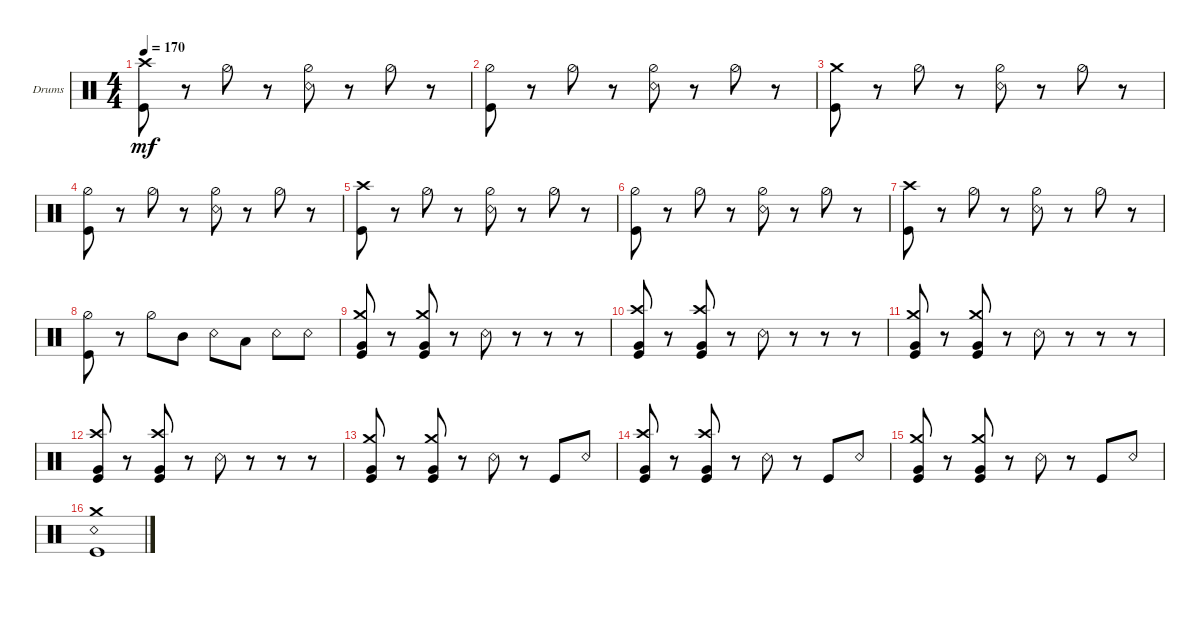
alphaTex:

\defaultSystemsLayout 4
\bracketExtendMode groupsimilarinstruments
\firstSystemTrackNameOrientation horizontal
\otherSystemsTrackNameOrientation horizontal
\track ("Drumkit" "Drums") {instrument percussion}
\staff {score}
\articulation defaults
\ts (4 4)
\tempo 170
\clef neutral
\scale
0.333333
\ks c
("Kick (hit)" "Crash high (hit)").8{dy mf} r.8 "Hi-Hat (half)".8 r.8 ("Snare (rim shot)" "Hi-Hat (half)").8 r.8 "Hi-Hat (half)".8 r.8 |
\scale
0.333333 ("Hi-Hat (half)" "Kick (hit)").8 r.8 "Hi-Hat (half)".8 r.8 ("Snare (rim shot)" "Hi-Hat (half)").8 r.8 "Hi-Hat (half)".8 r.8 |
\scale
0.333333 ("Kick (hit)" "Crash medium (hit)").8 r.8 "Hi-Hat (half)".8 r.8 ("Snare (rim shot)" "Hi-Hat (half)").8 r.8 "Hi-Hat (half)".8 r.8 |
\scale
0.333333 ("Kick (hit)" "Hi-Hat (half)").8 r.8 "Hi-Hat (half)".8 r.8 ("Snare (rim shot)" "Hi-Hat (half)").8 r.8 "Hi-Hat (half)".8 r.8 |
\scale
0.333333 ("Kick (hit)" "Crash high (hit)").8 r.8 "Hi-Hat (half)".8 r.8 ("Snare (rim shot)" "Hi-Hat (half)").8 r.8 "Hi-Hat (half)".8 r.8 |
\scale
0.333333 ("Kick (hit)" "Hi-Hat (half)").8 r.8 "Hi-Hat (half)".8 r.8 ("Snare (rim shot)" "Hi-Hat (half)").8 r.8 "Hi-Hat (half)".8 r.8 |
\scale
0.333333 ("Kick (hit)" "Crash high (hit)").8 r.8 "Hi-Hat (half)".8 r.8 ("Snare (rim shot)" "Hi-Hat (half)").8 r.8 "Hi-Hat (half)".8 r.8 |
\scale
0.333333 ("Kick (hit)" "Hi-Hat (half)").8 r.8 "Hi-Hat (half)".8 "Mid Tom (hit)".8 "Snare (rim shot)".8 "Low Tom (hit)".8 "Snare (rim shot)".8 "Snare (rim shot)".8 |
\scale
0.333333 ("Kick (hit)" "Very Low Tom (hit)" "Crash medium (hit)").8 r.8 ("Kick (hit)" "Very Low Tom (hit)" "Crash medium (hit)").8 r.8 "Snare (rim shot)".8 r.8 r.8 r.8 |
\scale
0.333333 ("Kick (hit)" "Very Low Tom (hit)" "Crash high (hit)").8 r.8 ("Kick (hit)" "Very Low Tom (hit)" "Crash high (hit)").8 r.8 "Snare (rim shot)".8 r.8 r.8 r.8 |
\scale
0.333333 ("Kick (hit)" "Very Low Tom (hit)" "Crash medium (hit)").8 r.8 ("Kick (hit)" "Very Low Tom (hit)" "Crash medium (hit)").8 r.8 "Snare (rim shot)".8 r.8 r.8 r.8 |
("Kick (hit)" "Very Low Tom (hit)" "Crash high (hit)").8 r.8 ("Kick (hit)" "Very Low Tom (hit)" "Crash high (hit)").8 r.8 "Snare (rim shot)".8 r.8 r.8 r.8 |
("Kick (hit)" "Very Low Tom (hit)" "Crash medium (hit)").8 r.8 ("Kick (hit)" "Very Low Tom (hit)" "Crash medium (hit)").8 r.8 "Snare (rim shot)".8 r.8 "Kick (hit)".8 "Snare (rim shot)".8 |
("Kick (hit)" "Very Low Tom (hit)" "Crash high (hit)").8 r.8 ("Kick (hit)" "Very Low Tom (hit)" "Crash high (hit)").8 r.8 "Snare (rim shot)".8 r.8 "Kick (hit)".8 "Snare (rim shot)".8 |
("Kick (hit)" "Very Low Tom (hit)" "Crash medium (hit)").8 r.8 ("Kick (hit)" "Very Low Tom (hit)" "Crash medium (hit)").8 r.8 "Snare (rim shot)".8 r.8 "Kick (hit)".8 "Snare (rim shot)".8 |
("Kick (hit)" "Crash medium (hit)" "Snare (rim shot)").1
